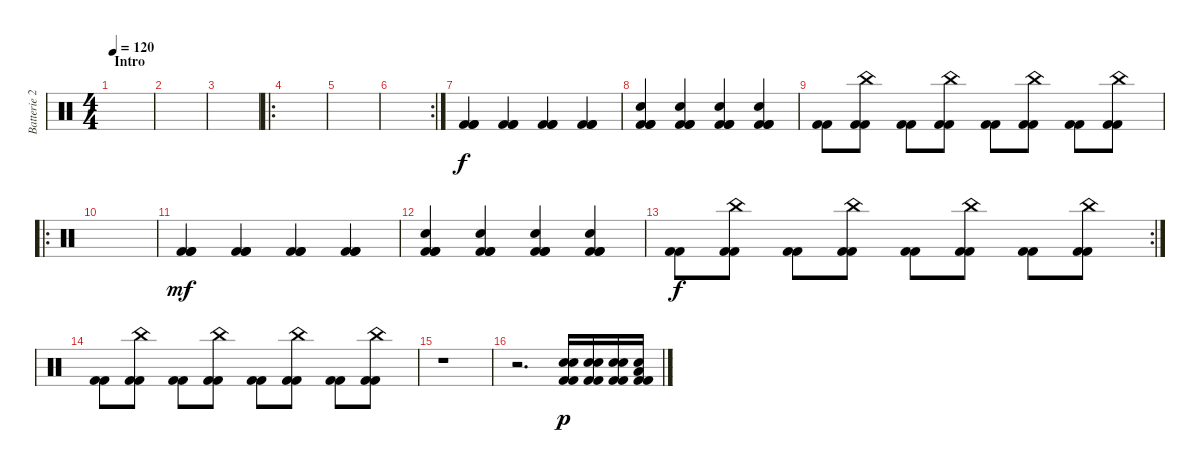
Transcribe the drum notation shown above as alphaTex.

\track ("Batterie 2" "Batterie 2") {instrument percussion}
\staff {score}
\articulation defaults
\ts (4 4)
\section ("" "Intro")
\tempo 120
\clef neutral
\ks c
|
|
|
\ro
\section ("" "")
|
|
\rc 2
|
\section ("" "")
("Kick (hit) 2" "Kick (hit) 2" "Kick (hit) 2").4 ("Kick (hit) 2" "Kick (hit) 2" "Kick (hit) 2").4 ("Kick (hit) 2" "Kick (hit) 2" "Kick (hit) 2").4 ("Kick (hit) 2" "Kick (hit) 2" "Kick (hit) 2").4 |
("Electric Snare (hit)" "Kick (hit) 2" "Kick (hit) 2" "Kick (hit) 2").4 ("Electric Snare (hit)" "Kick (hit) 2" "Kick (hit) 2" "Kick (hit) 2").4 ("Electric Snare (hit)" "Kick (hit) 2" "Kick (hit) 2" "Kick (hit) 2").4 ("Electric Snare (hit)" "Kick (hit) 2" "Kick (hit) 2" "Kick (hit) 2").4 |
("Kick (hit) 2" "Kick (hit) 2").8{dy f} ("China (hit)" "Kick (hit) 2" "Kick (hit) 2").8 ("Kick (hit) 2" "Kick (hit) 2").8 ("China (hit)" "Kick (hit) 2" "Kick (hit) 2").8 ("Kick (hit) 2" "Kick (hit) 2").8 ("China (hit)" "Kick (hit) 2" "Kick (hit) 2").8 ("Kick (hit) 2" "Kick (hit) 2").8 ("China (hit)" "Kick (hit) 2" "Kick (hit) 2").8 |
\ro
|
("Kick (hit) 2" "Kick (hit) 2" "Kick (hit) 2").4{dy mf} ("Kick (hit) 2" "Kick (hit) 2" "Kick (hit) 2").4 ("Kick (hit) 2" "Kick (hit) 2" "Kick (hit) 2").4 ("Kick (hit) 2" "Kick (hit) 2" "Kick (hit) 2").4 |
("Electric Snare (hit)" "Kick (hit) 2" "Kick (hit) 2" "Kick (hit) 2").4 ("Electric Snare (hit)" "Kick (hit) 2" "Kick (hit) 2" "Kick (hit) 2").4 ("Electric Snare (hit)" "Kick (hit) 2" "Kick (hit) 2" "Kick (hit) 2").4 ("Electric Snare (hit)" "Kick (hit) 2" "Kick (hit) 2" "Kick (hit) 2").4 |
\rc 2
("Kick (hit) 2" "Kick (hit) 2").8{dy f} ("China (hit)" "Kick (hit) 2" "Kick (hit) 2").8 ("Kick (hit) 2" "Kick (hit) 2").8 ("China (hit)" "Kick (hit) 2" "Kick (hit) 2").8 ("Kick (hit) 2" "Kick (hit) 2").8 ("China (hit)" "Kick (hit) 2" "Kick (hit) 2").8 ("Kick (hit) 2" "Kick (hit) 2").8 ("China (hit)" "Kick (hit) 2" "Kick (hit) 2").8 |
("Kick (hit) 2" "Kick (hit) 2").8 ("China (hit)" "Kick (hit) 2" "Kick (hit) 2").8 ("Kick (hit) 2" "Kick (hit) 2").8 ("China (hit)" "Kick (hit) 2" "Kick (hit) 2").8 ("Kick (hit) 2" "Kick (hit) 2").8 ("China (hit)" "Kick (hit) 2" "Kick (hit) 2").8 ("Kick (hit) 2" "Kick (hit) 2").8 ("China (hit)" "Kick (hit) 2" "Kick (hit) 2").8 |
\section ("" "")
r.1 |
r.2{d} ("Electric Snare (hit)" "Kick (hit) 2" "Kick (hit) 2" "Electric Snare (hit)").16{dy p} ("Electric Snare (hit)" "Kick (hit) 2" "Kick (hit) 2" "Electric Snare (hit)").16 ("Electric Snare (hit)" "Kick (hit) 2" "Kick (hit) 2" "Electric Snare (hit)").16 ("Low Floor Tom (hit)" "Kick (hit) 2" "Kick (hit) 2" "Electric Snare (hit)").16
